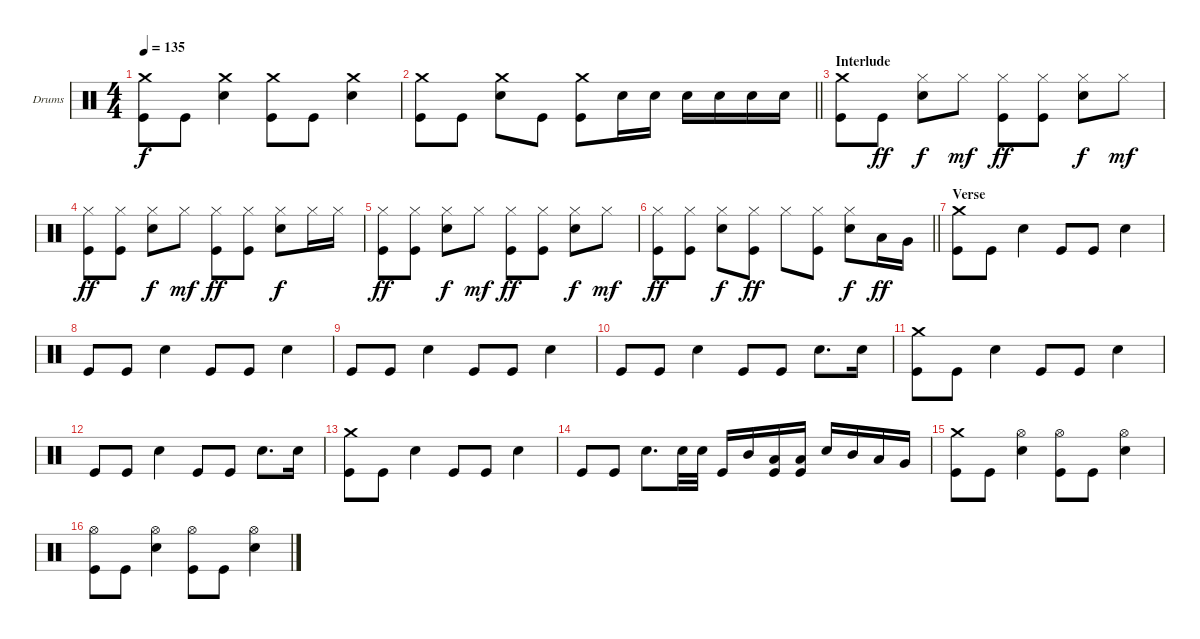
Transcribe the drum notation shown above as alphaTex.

\bracketExtendMode groupsimilarinstruments
\firstSystemTrackNameOrientation horizontal
\otherSystemsTrackNameOrientation horizontal
\track ("Drumkit" "Drums") {instrument percussion}
\staff {score}
\articulation defaults
\ts (4 4)
\tempo 135
\clef neutral
\ks c
("Crash medium (hit)" "Kick (hit)").8{dy f} "Kick (hit)".8 ("Snare (hit) 2" "Crash medium (hit)").4 ("Crash medium (hit)" "Kick (hit)").8 "Kick (hit)".8 ("Snare (hit) 2" "Crash medium (hit)").4 |
\barLineRight lightlight
("Crash medium (hit)" "Kick (hit)").8 "Kick (hit)".8 ("Snare (hit) 2" "Crash medium (hit)").8 "Kick (hit)".8 ("Crash medium (hit)" "Kick (hit)").8 "Snare (hit) 2".16 "Snare (hit) 2".16 "Snare (hit) 2".16 "Snare (hit) 2".16 "Snare (hit) 2".16 "Snare (hit) 2".16 |
\section ("" "Interlude")
("Crash medium (hit)" "Kick (hit)").8 "Kick (hit)".8{dy ff} ("Snare (hit) 2" "Hi-Hat (closed)").8{dy f} "Hi-Hat (closed)".8{dy mf} ("Kick (hit)" "Hi-Hat (closed)").8{dy ff} ("Kick (hit)" "Hi-Hat (closed)").8 ("Snare (hit) 2" "Hi-Hat (closed)").8{dy f} "Hi-Hat (closed)".8{dy mf} |
("Kick (hit)" "Hi-Hat (closed)").8{dy ff} ("Kick (hit)" "Hi-Hat (closed)").8 ("Snare (hit) 2" "Hi-Hat (closed)").8{dy f} "Hi-Hat (closed)".8{dy mf} ("Kick (hit)" "Hi-Hat (closed)").8{dy ff} ("Kick (hit)" "Hi-Hat (closed)").8 ("Snare (hit) 2" "Hi-Hat (closed)").8{dy f} "Hi-Hat (closed)".16 "Hi-Hat (closed)".16 |
("Kick (hit)" "Hi-Hat (closed)").8{dy ff} ("Kick (hit)" "Hi-Hat (closed)").8 ("Snare (hit) 2" "Hi-Hat (closed)").8{dy f} "Hi-Hat (closed)".8{dy mf} ("Kick (hit)" "Hi-Hat (closed)").8{dy ff} ("Kick (hit)" "Hi-Hat (closed)").8 ("Snare (hit) 2" "Hi-Hat (closed)").8{dy f} "Hi-Hat (closed)".8{dy mf} |
\barLineRight lightlight
("Kick (hit)" "Hi-Hat (closed)").8{dy ff} ("Kick (hit)" "Hi-Hat (closed)").8 ("Snare (hit) 2" "Hi-Hat (closed)").8{dy f} ("Kick (hit)" "Hi-Hat (closed)").8{dy ff} "Hi-Hat (closed)".8 ("Kick (hit)" "Hi-Hat (closed)").8 ("Snare (hit) 2" "Hi-Hat (closed)").8{dy f} "Low Tom (hit)".16{dy ff} "Very Low Tom (hit)".16 |
\section ("" "Verse")
("Crash medium (hit)" "Kick (hit)").8 "Kick (hit)".8 "Snare (hit) 2".4 "Kick (hit)".8 "Kick (hit)".8 "Snare (hit) 2".4 |
"Kick (hit)".8 "Kick (hit)".8 "Snare (hit) 2".4 "Kick (hit)".8 "Kick (hit)".8 "Snare (hit) 2".4 |
"Kick (hit)".8 "Kick (hit)".8 "Snare (hit) 2".4 "Kick (hit)".8 "Kick (hit)".8 "Snare (hit) 2".4 |
"Kick (hit)".8 "Kick (hit)".8 "Snare (hit) 2".4 "Kick (hit)".8 "Kick (hit)".8 "Snare (hit) 2".8{d} "Snare (hit) 2".16 |
("Kick (hit)" "Crash medium (hit)").8 "Kick (hit)".8 "Snare (hit) 2".4 "Kick (hit)".8 "Kick (hit)".8 "Snare (hit) 2".4 |
"Kick (hit)".8 "Kick (hit)".8 "Snare (hit) 2".4 "Kick (hit)".8 "Kick (hit)".8 "Snare (hit) 2".8{d} "Snare (hit) 2".16 |
("Kick (hit)" "Crash medium (hit)").8 "Kick (hit)".8 "Snare (hit) 2".4 "Kick (hit)".8 "Kick (hit)".8 "Snare (hit) 2".4 |
"Kick (hit)".8 "Kick (hit)".8 "Snare (hit) 2".8{d} "Snare (hit) 2".32 "Snare (hit) 2".32 "Kick (hit)".16 "Mid Tom (hit)".16 ("Low Tom (hit)" "Kick (hit)").16 ("Kick (hit)" "Low Tom (hit)").16 "Snare (hit) 2".16 "Mid Tom (hit)".16 "Low Tom (hit)".16 "Very Low Tom (hit)".16 |
("Kick (hit)" "Crash medium (hit)").8 "Kick (hit)".8 ("Snare (hit) 2" "Hi-Hat (open)").4 ("Hi-Hat (open)" "Kick (hit)").8 "Kick (hit)".8 ("Snare (hit) 2" "Hi-Hat (open)").4 |
("Hi-Hat (open)" "Kick (hit)").8 "Kick (hit)".8 ("Snare (hit) 2" "Hi-Hat (open)").4 ("Hi-Hat (open)" "Kick (hit)").8 "Kick (hit)".8 ("Snare (hit) 2" "Hi-Hat (open)").4
